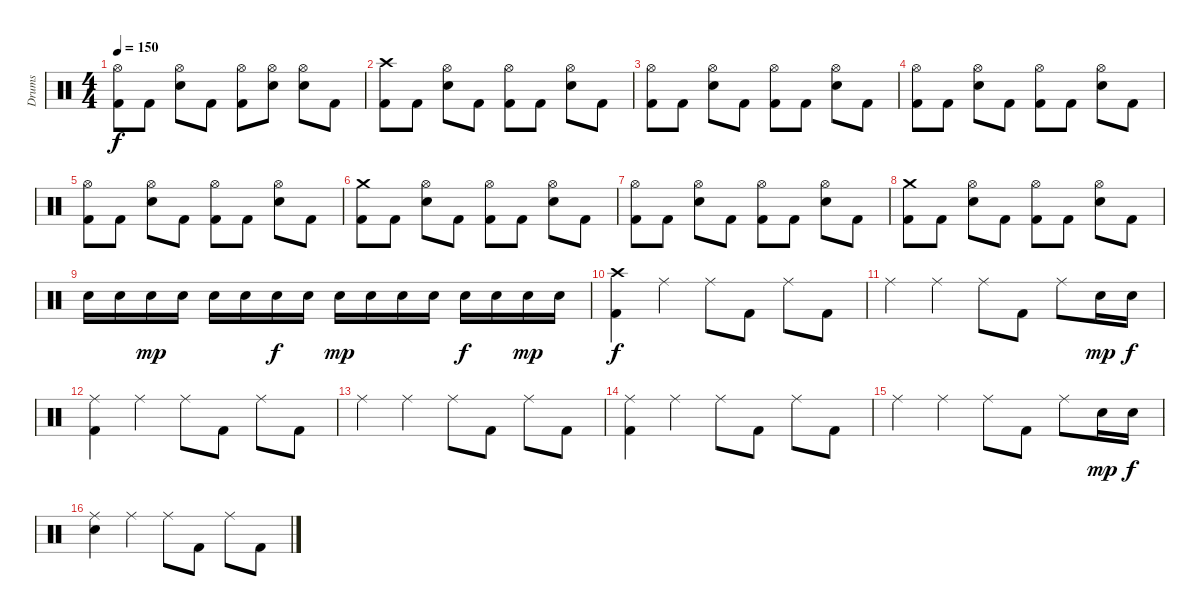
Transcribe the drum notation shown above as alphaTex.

\track ("Drums" "Drums") {instrument percussion}
\staff {score}
\articulation defaults
\ts (4 4)
\tempo 150
\clef neutral
\ks c
("Hi-Hat (open)" "Kick (hit) 2").8{dy f} "Kick (hit) 2".8 ("Hi-Hat (open)" "Electric Snare (hit)").8 "Kick (hit) 2".8 ("Hi-Hat (open)" "Kick (hit) 2").8 ("Hi-Hat (open)" "Electric Snare (hit)").8 ("Hi-Hat (open)" "Electric Snare (hit)").8 "Kick (hit) 2".8 |
("Crash high (hit)" "Kick (hit) 2").8 "Kick (hit) 2".8 ("Hi-Hat (open)" "Electric Snare (hit)").8 "Kick (hit) 2".8 ("Hi-Hat (open)" "Kick (hit) 2").8 "Kick (hit) 2".8 ("Hi-Hat (open)" "Electric Snare (hit)").8 "Kick (hit) 2".8 |
("Hi-Hat (open)" "Kick (hit) 2").8 "Kick (hit) 2".8 ("Hi-Hat (open)" "Electric Snare (hit)").8 "Kick (hit) 2".8 ("Hi-Hat (open)" "Kick (hit) 2").8 "Kick (hit) 2".8 ("Hi-Hat (open)" "Electric Snare (hit)").8 "Kick (hit) 2".8 |
("Hi-Hat (open)" "Kick (hit) 2").8 "Kick (hit) 2".8 ("Hi-Hat (open)" "Electric Snare (hit)").8 "Kick (hit) 2".8 ("Hi-Hat (open)" "Kick (hit) 2").8 "Kick (hit) 2".8 ("Hi-Hat (open)" "Electric Snare (hit)").8 "Kick (hit) 2".8 |
("Hi-Hat (open)" "Kick (hit) 2").8 "Kick (hit) 2".8 ("Hi-Hat (open)" "Electric Snare (hit)").8 "Kick (hit) 2".8 ("Hi-Hat (open)" "Kick (hit) 2").8 "Kick (hit) 2".8 ("Hi-Hat (open)" "Electric Snare (hit)").8 "Kick (hit) 2".8 |
("Crash medium (hit)" "Kick (hit) 2").8 "Kick (hit) 2".8 ("Hi-Hat (open)" "Electric Snare (hit)").8 "Kick (hit) 2".8 ("Hi-Hat (open)" "Kick (hit) 2").8 "Kick (hit) 2".8 ("Hi-Hat (open)" "Electric Snare (hit)").8 "Kick (hit) 2".8 |
("Hi-Hat (open)" "Kick (hit) 2").8 "Kick (hit) 2".8 ("Hi-Hat (open)" "Electric Snare (hit)").8 "Kick (hit) 2".8 ("Hi-Hat (open)" "Kick (hit) 2").8 "Kick (hit) 2".8 ("Hi-Hat (open)" "Electric Snare (hit)").8 "Kick (hit) 2".8 |
("Crash medium (hit)" "Kick (hit) 2").8 "Kick (hit) 2".8 ("Hi-Hat (open)" "Electric Snare (hit)").8 "Kick (hit) 2".8 ("Hi-Hat (open)" "Kick (hit) 2").8 "Kick (hit) 2".8 ("Hi-Hat (open)" "Electric Snare (hit)").8 "Kick (hit) 2".8 |
"Electric Snare (hit)".16 "Electric Snare (hit)".16 "Electric Snare (hit)".16{dy mp} "Electric Snare (hit)".16 "Electric Snare (hit)".16 "Electric Snare (hit)".16 "Electric Snare (hit)".16{dy f} "Electric Snare (hit)".16 "Electric Snare (hit)".16{dy mp} "Electric Snare (hit)".16 "Electric Snare (hit)".16 "Electric Snare (hit)".16 "Electric Snare (hit)".16{dy f} "Electric Snare (hit)".16 "Electric Snare (hit)".16{dy mp} "Electric Snare (hit)".16 |
("Crash high (hit)" "Kick (hit) 2").4{dy f} "Ride (middle)".4 "Ride (middle)".8 "Kick (hit) 2".8 "Ride (middle)".8 "Kick (hit) 2".8 |
"Ride (middle)".4 "Ride (middle)".4 "Ride (middle)".8 "Kick (hit) 2".8 "Ride (middle)".8 "Electric Snare (hit)".16{dy mp} "Electric Snare (hit)".16{dy f} |
("Ride (middle)" "Kick (hit) 2").4 "Ride (middle)".4 "Ride (middle)".8 "Kick (hit) 2".8 "Ride (middle)".8 "Kick (hit) 2".8 |
"Ride (middle)".4 "Ride (middle)".4 "Ride (middle)".8 "Kick (hit) 2".8 "Ride (middle)".8 "Kick (hit) 2".8 |
("Ride (middle)" "Kick (hit) 2").4 "Ride (middle)".4 "Ride (middle)".8 "Kick (hit) 2".8 "Ride (middle)".8 "Kick (hit) 2".8 |
"Ride (middle)".4 "Ride (middle)".4 "Ride (middle)".8 "Kick (hit) 2".8 "Ride (middle)".8 "Electric Snare (hit)".16{dy mp} "Electric Snare (hit)".16{dy f} |
("Ride (middle)" "Electric Snare (hit)").4 "Ride (middle)".4 "Ride (middle)".8 "Kick (hit) 2".8 "Ride (middle)".8 "Kick (hit) 2".8
